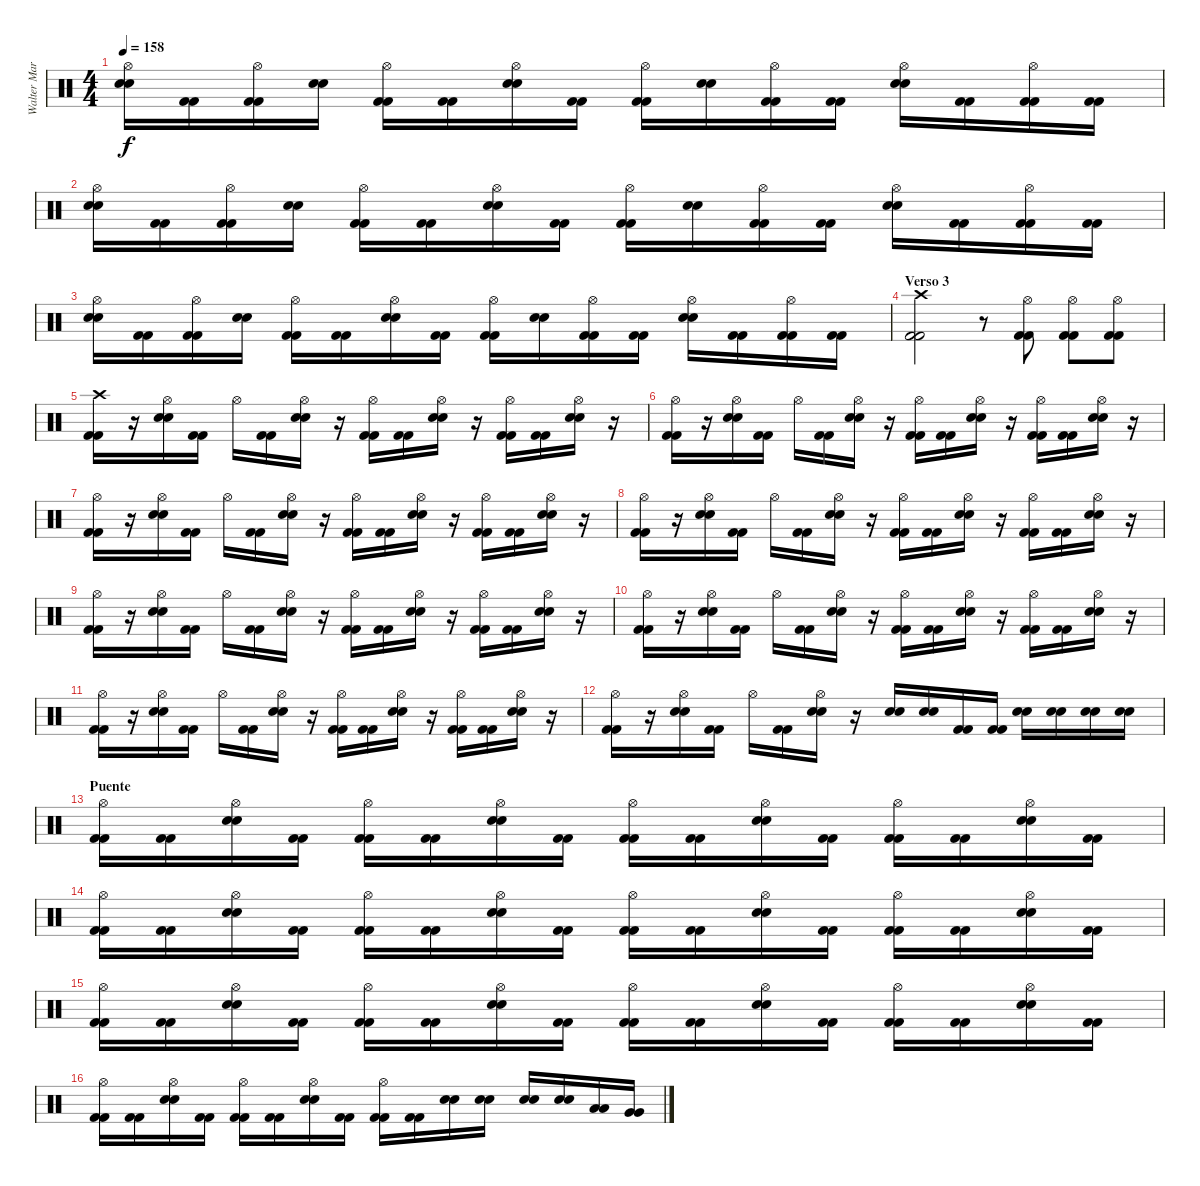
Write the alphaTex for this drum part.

\track ("Walter Martinez (Bateria)" "Walter Mar") {instrument percussion}
\staff {score}
\articulation defaults
\ts (4 4)
\tempo 158
\clef neutral
\ks c
("Hi-Hat (open)" "Snare (hit) 2" "Snare (hit) 2").16{dy f} ("Kick (hit) 2" "Kick (hit) 2").16 ("Hi-Hat (open)" "Kick (hit) 2" "Kick (hit) 2").16 ("Snare (hit) 2" "Snare (hit) 2").16 ("Hi-Hat (open)" "Kick (hit) 2" "Kick (hit) 2").16 ("Kick (hit) 2" "Kick (hit) 2").16 ("Hi-Hat (open)" "Snare (hit) 2" "Snare (hit) 2").16 ("Kick (hit) 2" "Kick (hit) 2").16 ("Hi-Hat (open)" "Kick (hit) 2" "Kick (hit) 2").16 ("Snare (hit) 2" "Snare (hit) 2").16 ("Hi-Hat (open)" "Kick (hit) 2" "Kick (hit) 2").16 ("Kick (hit) 2" "Kick (hit) 2").16 ("Hi-Hat (open)" "Snare (hit) 2" "Snare (hit) 2").16 ("Kick (hit) 2" "Kick (hit) 2").16 ("Hi-Hat (open)" "Kick (hit) 2" "Kick (hit) 2").16 ("Kick (hit) 2" "Kick (hit) 2").16 |
("Hi-Hat (open)" "Snare (hit) 2" "Snare (hit) 2").16 ("Kick (hit) 2" "Kick (hit) 2").16 ("Hi-Hat (open)" "Kick (hit) 2" "Kick (hit) 2").16 ("Snare (hit) 2" "Snare (hit) 2").16 ("Hi-Hat (open)" "Kick (hit) 2" "Kick (hit) 2").16 ("Kick (hit) 2" "Kick (hit) 2").16 ("Hi-Hat (open)" "Snare (hit) 2" "Snare (hit) 2").16 ("Kick (hit) 2" "Kick (hit) 2").16 ("Hi-Hat (open)" "Kick (hit) 2" "Kick (hit) 2").16 ("Snare (hit) 2" "Snare (hit) 2").16 ("Hi-Hat (open)" "Kick (hit) 2" "Kick (hit) 2").16 ("Kick (hit) 2" "Kick (hit) 2").16 ("Hi-Hat (open)" "Snare (hit) 2" "Snare (hit) 2").16 ("Kick (hit) 2" "Kick (hit) 2").16 ("Hi-Hat (open)" "Kick (hit) 2" "Kick (hit) 2").16 ("Kick (hit) 2" "Kick (hit) 2").16 |
("Hi-Hat (open)" "Snare (hit) 2" "Snare (hit) 2").16 ("Kick (hit) 2" "Kick (hit) 2").16 ("Hi-Hat (open)" "Kick (hit) 2" "Kick (hit) 2").16 ("Snare (hit) 2" "Snare (hit) 2").16 ("Hi-Hat (open)" "Kick (hit) 2" "Kick (hit) 2").16 ("Kick (hit) 2" "Kick (hit) 2").16 ("Hi-Hat (open)" "Snare (hit) 2" "Snare (hit) 2").16 ("Kick (hit) 2" "Kick (hit) 2").16 ("Hi-Hat (open)" "Kick (hit) 2" "Kick (hit) 2").16 ("Snare (hit) 2" "Snare (hit) 2").16 ("Hi-Hat (open)" "Kick (hit) 2" "Kick (hit) 2").16 ("Kick (hit) 2" "Kick (hit) 2").16 ("Hi-Hat (open)" "Snare (hit) 2" "Snare (hit) 2").16 ("Kick (hit) 2" "Kick (hit) 2").16 ("Hi-Hat (open)" "Kick (hit) 2" "Kick (hit) 2").16 ("Kick (hit) 2" "Kick (hit) 2").16 |
\section ("" "Verso 3")
("Crash high (hit)" "Kick (hit) 2" "Kick (hit) 2").2 r.8 ("Hi-Hat (open)" "Kick (hit) 2" "Kick (hit) 2").8 ("Hi-Hat (open)" "Kick (hit) 2" "Kick (hit) 2").8 ("Hi-Hat (open)" "Kick (hit) 2" "Kick (hit) 2").8 |
("Crash high (hit)" "Kick (hit) 2" "Kick (hit) 2").16 r.16 ("Hi-Hat (open)" "Snare (hit) 2" "Snare (hit) 2").16 ("Kick (hit) 2" "Kick (hit) 2").16 "Hi-Hat (open)".16 ("Kick (hit) 2" "Kick (hit) 2").16 ("Hi-Hat (open)" "Snare (hit) 2" "Snare (hit) 2").16 r.16 ("Hi-Hat (open)" "Kick (hit) 2" "Kick (hit) 2").16 ("Kick (hit) 2" "Kick (hit) 2").16 ("Hi-Hat (open)" "Snare (hit) 2" "Snare (hit) 2").16 r.16 ("Hi-Hat (open)" "Kick (hit) 2" "Kick (hit) 2").16 ("Kick (hit) 2" "Kick (hit) 2").16 ("Hi-Hat (open)" "Snare (hit) 2" "Snare (hit) 2").16 r.16 |
("Hi-Hat (open)" "Kick (hit) 2" "Kick (hit) 2").16 r.16 ("Hi-Hat (open)" "Snare (hit) 2" "Snare (hit) 2").16 ("Kick (hit) 2" "Kick (hit) 2").16 "Hi-Hat (open)".16 ("Kick (hit) 2" "Kick (hit) 2").16 ("Hi-Hat (open)" "Snare (hit) 2" "Snare (hit) 2").16 r.16 ("Hi-Hat (open)" "Kick (hit) 2" "Kick (hit) 2").16 ("Kick (hit) 2" "Kick (hit) 2").16 ("Hi-Hat (open)" "Snare (hit) 2" "Snare (hit) 2").16 r.16 ("Hi-Hat (open)" "Kick (hit) 2" "Kick (hit) 2").16 ("Kick (hit) 2" "Kick (hit) 2").16 ("Hi-Hat (open)" "Snare (hit) 2" "Snare (hit) 2").16 r.16 |
("Hi-Hat (open)" "Kick (hit) 2" "Kick (hit) 2").16 r.16 ("Hi-Hat (open)" "Snare (hit) 2" "Snare (hit) 2").16 ("Kick (hit) 2" "Kick (hit) 2").16 "Hi-Hat (open)".16 ("Kick (hit) 2" "Kick (hit) 2").16 ("Hi-Hat (open)" "Snare (hit) 2" "Snare (hit) 2").16 r.16 ("Hi-Hat (open)" "Kick (hit) 2" "Kick (hit) 2").16 ("Kick (hit) 2" "Kick (hit) 2").16 ("Hi-Hat (open)" "Snare (hit) 2" "Snare (hit) 2").16 r.16 ("Hi-Hat (open)" "Kick (hit) 2" "Kick (hit) 2").16 ("Kick (hit) 2" "Kick (hit) 2").16 ("Hi-Hat (open)" "Snare (hit) 2" "Snare (hit) 2").16 r.16 |
("Hi-Hat (open)" "Kick (hit) 2" "Kick (hit) 2").16 r.16 ("Hi-Hat (open)" "Snare (hit) 2" "Snare (hit) 2").16 ("Kick (hit) 2" "Kick (hit) 2").16 "Hi-Hat (open)".16 ("Kick (hit) 2" "Kick (hit) 2").16 ("Hi-Hat (open)" "Snare (hit) 2" "Snare (hit) 2").16 r.16 ("Hi-Hat (open)" "Kick (hit) 2" "Kick (hit) 2").16 ("Kick (hit) 2" "Kick (hit) 2").16 ("Hi-Hat (open)" "Snare (hit) 2" "Snare (hit) 2").16 r.16 ("Hi-Hat (open)" "Kick (hit) 2" "Kick (hit) 2").16 ("Kick (hit) 2" "Kick (hit) 2").16 ("Hi-Hat (open)" "Snare (hit) 2" "Snare (hit) 2").16 r.16 |
("Hi-Hat (open)" "Kick (hit) 2" "Kick (hit) 2").16 r.16 ("Hi-Hat (open)" "Snare (hit) 2" "Snare (hit) 2").16 ("Kick (hit) 2" "Kick (hit) 2").16 "Hi-Hat (open)".16 ("Kick (hit) 2" "Kick (hit) 2").16 ("Hi-Hat (open)" "Snare (hit) 2" "Snare (hit) 2").16 r.16 ("Hi-Hat (open)" "Kick (hit) 2" "Kick (hit) 2").16 ("Kick (hit) 2" "Kick (hit) 2").16 ("Hi-Hat (open)" "Snare (hit) 2" "Snare (hit) 2").16 r.16 ("Hi-Hat (open)" "Kick (hit) 2" "Kick (hit) 2").16 ("Kick (hit) 2" "Kick (hit) 2").16 ("Hi-Hat (open)" "Snare (hit) 2" "Snare (hit) 2").16 r.16 |
("Hi-Hat (open)" "Kick (hit) 2" "Kick (hit) 2").16 r.16 ("Hi-Hat (open)" "Snare (hit) 2" "Snare (hit) 2").16 ("Kick (hit) 2" "Kick (hit) 2").16 "Hi-Hat (open)".16 ("Kick (hit) 2" "Kick (hit) 2").16 ("Hi-Hat (open)" "Snare (hit) 2" "Snare (hit) 2").16 r.16 ("Hi-Hat (open)" "Kick (hit) 2" "Kick (hit) 2").16 ("Kick (hit) 2" "Kick (hit) 2").16 ("Hi-Hat (open)" "Snare (hit) 2" "Snare (hit) 2").16 r.16 ("Hi-Hat (open)" "Kick (hit) 2" "Kick (hit) 2").16 ("Kick (hit) 2" "Kick (hit) 2").16 ("Hi-Hat (open)" "Snare (hit) 2" "Snare (hit) 2").16 r.16 |
("Hi-Hat (open)" "Kick (hit) 2" "Kick (hit) 2").16 r.16 ("Hi-Hat (open)" "Snare (hit) 2" "Snare (hit) 2").16 ("Kick (hit) 2" "Kick (hit) 2").16 "Hi-Hat (open)".16 ("Kick (hit) 2" "Kick (hit) 2").16 ("Hi-Hat (open)" "Snare (hit) 2" "Snare (hit) 2").16 r.16 ("Hi-Hat (open)" "Kick (hit) 2" "Kick (hit) 2").16 ("Kick (hit) 2" "Kick (hit) 2").16 ("Hi-Hat (open)" "Snare (hit) 2" "Snare (hit) 2").16 r.16 ("Hi-Hat (open)" "Kick (hit) 2" "Kick (hit) 2").16 ("Kick (hit) 2" "Kick (hit) 2").16 ("Hi-Hat (open)" "Snare (hit) 2" "Snare (hit) 2").16 r.16 |
("Hi-Hat (open)" "Kick (hit) 2" "Kick (hit) 2").16 r.16 ("Hi-Hat (open)" "Snare (hit) 2" "Snare (hit) 2").16 ("Kick (hit) 2" "Kick (hit) 2").16 "Hi-Hat (open)".16 ("Kick (hit) 2" "Kick (hit) 2").16 ("Hi-Hat (open)" "Snare (hit) 2" "Snare (hit) 2").16 r.16 ("Snare (hit) 2" "Snare (hit) 2").16 ("Snare (hit) 2" "Snare (hit) 2").16 ("Kick (hit) 2" "Kick (hit) 2").16 ("Kick (hit) 2" "Kick (hit) 2").16 ("Snare (hit) 2" "Snare (hit) 2").16 ("Snare (hit) 2" "Snare (hit) 2").16 ("Snare (hit) 2" "Snare (hit) 2").16 ("Snare (hit) 2" "Snare (hit) 2").16 |
\section ("" "Puente")
("Hi-Hat (open)" "Kick (hit) 2" "Kick (hit) 2").16 ("Kick (hit) 2" "Kick (hit) 2").16 ("Hi-Hat (open)" "Snare (hit) 2" "Snare (hit) 2").16 ("Kick (hit) 2" "Kick (hit) 2").16 ("Hi-Hat (open)" "Kick (hit) 2" "Kick (hit) 2").16 ("Kick (hit) 2" "Kick (hit) 2").16 ("Hi-Hat (open)" "Snare (hit) 2" "Snare (hit) 2").16 ("Kick (hit) 2" "Kick (hit) 2").16 ("Hi-Hat (open)" "Kick (hit) 2" "Kick (hit) 2").16 ("Kick (hit) 2" "Kick (hit) 2").16 ("Hi-Hat (open)" "Snare (hit) 2" "Snare (hit) 2").16 ("Kick (hit) 2" "Kick (hit) 2").16 ("Hi-Hat (open)" "Kick (hit) 2" "Kick (hit) 2").16 ("Kick (hit) 2" "Kick (hit) 2").16 ("Hi-Hat (open)" "Snare (hit) 2" "Snare (hit) 2").16 ("Kick (hit) 2" "Kick (hit) 2").16 |
("Hi-Hat (open)" "Kick (hit) 2" "Kick (hit) 2").16 ("Kick (hit) 2" "Kick (hit) 2").16 ("Hi-Hat (open)" "Snare (hit) 2" "Snare (hit) 2").16 ("Kick (hit) 2" "Kick (hit) 2").16 ("Hi-Hat (open)" "Kick (hit) 2" "Kick (hit) 2").16 ("Kick (hit) 2" "Kick (hit) 2").16 ("Hi-Hat (open)" "Snare (hit) 2" "Snare (hit) 2").16 ("Kick (hit) 2" "Kick (hit) 2").16 ("Hi-Hat (open)" "Kick (hit) 2" "Kick (hit) 2").16 ("Kick (hit) 2" "Kick (hit) 2").16 ("Hi-Hat (open)" "Snare (hit) 2" "Snare (hit) 2").16 ("Kick (hit) 2" "Kick (hit) 2").16 ("Hi-Hat (open)" "Kick (hit) 2" "Kick (hit) 2").16 ("Kick (hit) 2" "Kick (hit) 2").16 ("Hi-Hat (open)" "Snare (hit) 2" "Snare (hit) 2").16 ("Kick (hit) 2" "Kick (hit) 2").16 |
("Hi-Hat (open)" "Kick (hit) 2" "Kick (hit) 2").16 ("Kick (hit) 2" "Kick (hit) 2").16 ("Hi-Hat (open)" "Snare (hit) 2" "Snare (hit) 2").16 ("Kick (hit) 2" "Kick (hit) 2").16 ("Hi-Hat (open)" "Kick (hit) 2" "Kick (hit) 2").16 ("Kick (hit) 2" "Kick (hit) 2").16 ("Hi-Hat (open)" "Snare (hit) 2" "Snare (hit) 2").16 ("Kick (hit) 2" "Kick (hit) 2").16 ("Hi-Hat (open)" "Kick (hit) 2" "Kick (hit) 2").16 ("Kick (hit) 2" "Kick (hit) 2").16 ("Hi-Hat (open)" "Snare (hit) 2" "Snare (hit) 2").16 ("Kick (hit) 2" "Kick (hit) 2").16 ("Hi-Hat (open)" "Kick (hit) 2" "Kick (hit) 2").16 ("Kick (hit) 2" "Kick (hit) 2").16 ("Hi-Hat (open)" "Snare (hit) 2" "Snare (hit) 2").16 ("Kick (hit) 2" "Kick (hit) 2").16 |
("Hi-Hat (open)" "Kick (hit) 2" "Kick (hit) 2").16 ("Kick (hit) 2" "Kick (hit) 2").16 ("Hi-Hat (open)" "Snare (hit) 2" "Snare (hit) 2").16 ("Kick (hit) 2" "Kick (hit) 2").16 ("Hi-Hat (open)" "Kick (hit) 2" "Kick (hit) 2").16 ("Kick (hit) 2" "Kick (hit) 2").16 ("Hi-Hat (open)" "Snare (hit) 2" "Snare (hit) 2").16 ("Kick (hit) 2" "Kick (hit) 2").16 ("Hi-Hat (open)" "Kick (hit) 2" "Kick (hit) 2").16 ("Kick (hit) 2" "Kick (hit) 2").16 ("Snare (hit) 2" "Snare (hit) 2").16 ("Snare (hit) 2" "Snare (hit) 2").16 ("Snare (hit) 2" "Snare (hit) 2").16 ("Snare (hit) 2" "Snare (hit) 2").16 ("Low Tom (hit)" "Low Tom (hit)").16 ("Very Low Tom (hit)" "Very Low Tom (hit)").16
